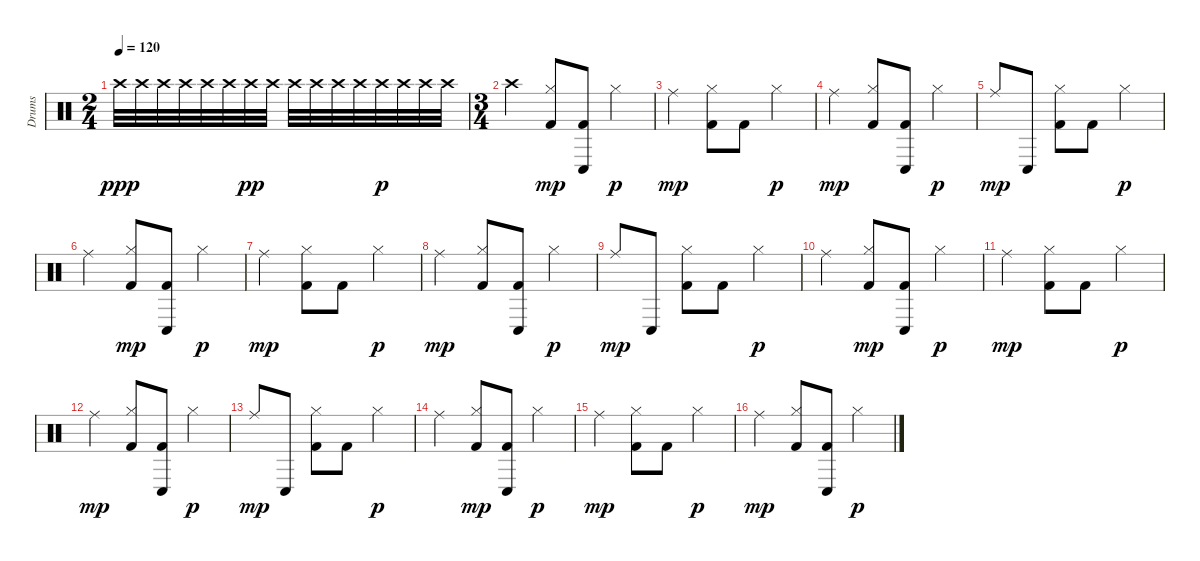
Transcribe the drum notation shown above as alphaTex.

\track ("Drums" "Drums") {instrument percussion}
\staff {score}
\articulation defaults
\ts (2 4)
\tempo 120
\clef neutral
\ks c "Crash high (hit)".32{dy ppp} "Crash high (hit)".32 "Crash high (hit)".32 "Crash high (hit)".32 "Crash high (hit)".32 "Crash high (hit)".32 "Crash high (hit)".32{dy pp} "Crash high (hit)".32 "Crash high (hit)".32 "Crash high (hit)".32 "Crash high (hit)".32 "Crash high (hit)".32 "Crash high (hit)".32{dy p} "Crash high (hit)".32 "Crash high (hit)".32 "Crash high (hit)".32
|
\ts (3 4)
"Crash high (hit)".4 ("Hi-Hat (closed)" "Kick (hit) 2").8{dy mp} ("Kick (hit) 2" "Conga low (hit)").8 "Hi-Hat (closed)".4{dy p} |
"Ride (middle)".4{dy mp} ("Hi-Hat (closed)" "Kick (hit) 2").8 "Kick (hit) 2".8 "Hi-Hat (closed)".4{dy p} |
"Ride (middle)".4{dy mp} ("Hi-Hat (closed)" "Kick (hit) 2").8 ("Kick (hit) 2" "Conga low (hit)").8 "Hi-Hat (closed)".4{dy p} |
"Ride (middle)".8{dy mp} "Conga low (hit)".8 ("Hi-Hat (closed)" "Kick (hit) 2").8 "Kick (hit) 2".8 "Hi-Hat (closed)".4{dy p} |
"Ride (middle)".4 ("Hi-Hat (closed)" "Kick (hit) 2").8{dy mp} ("Kick (hit) 2" "Conga low (hit)").8 "Hi-Hat (closed)".4{dy p} |
"Ride (middle)".4{dy mp} ("Hi-Hat (closed)" "Kick (hit) 2").8 "Kick (hit) 2".8 "Hi-Hat (closed)".4{dy p} |
"Ride (middle)".4{dy mp} ("Hi-Hat (closed)" "Kick (hit) 2").8 ("Kick (hit) 2" "Conga low (hit)").8 "Hi-Hat (closed)".4{dy p} |
"Ride (middle)".8{dy mp} "Conga low (hit)".8 ("Hi-Hat (closed)" "Kick (hit) 2").8 "Kick (hit) 2".8 "Hi-Hat (closed)".4{dy p} |
"Ride (middle)".4 ("Hi-Hat (closed)" "Kick (hit) 2").8{dy mp} ("Kick (hit) 2" "Conga low (hit)").8 "Hi-Hat (closed)".4{dy p} |
"Ride (middle)".4{dy mp} ("Hi-Hat (closed)" "Kick (hit) 2").8 "Kick (hit) 2".8 "Hi-Hat (closed)".4{dy p} |
"Ride (middle)".4{dy mp} ("Hi-Hat (closed)" "Kick (hit) 2").8 ("Kick (hit) 2" "Conga low (hit)").8 "Hi-Hat (closed)".4{dy p} |
"Ride (middle)".8{dy mp} "Conga low (hit)".8 ("Hi-Hat (closed)" "Kick (hit) 2").8 "Kick (hit) 2".8 "Hi-Hat (closed)".4{dy p} |
"Ride (middle)".4 ("Hi-Hat (closed)" "Kick (hit) 2").8{dy mp} ("Kick (hit) 2" "Conga low (hit)").8 "Hi-Hat (closed)".4{dy p} |
"Ride (middle)".4{dy mp} ("Hi-Hat (closed)" "Kick (hit) 2").8 "Kick (hit) 2".8 "Hi-Hat (closed)".4{dy p} |
"Ride (middle)".4{dy mp} ("Hi-Hat (closed)" "Kick (hit) 2").8 ("Kick (hit) 2" "Conga low (hit)").8 "Hi-Hat (closed)".4{dy p}
